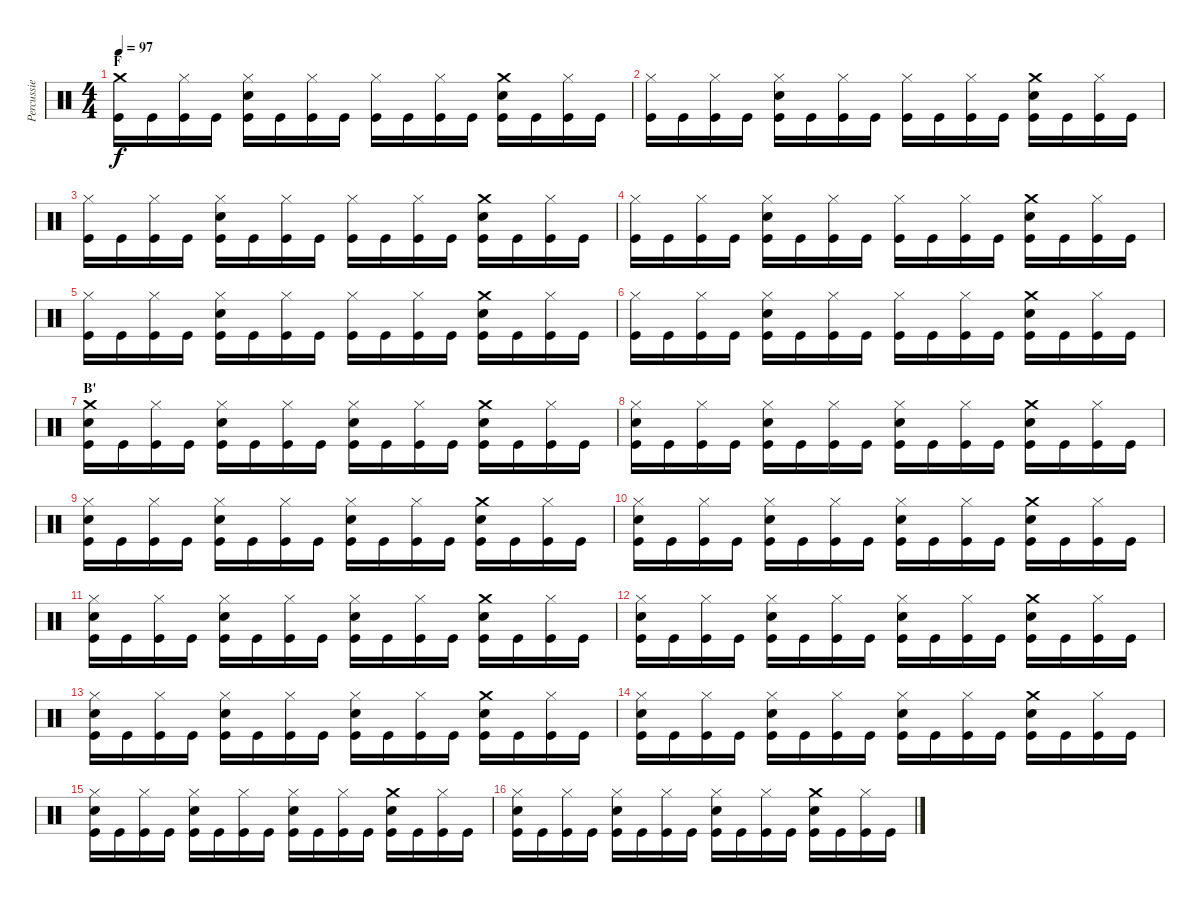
\track ("Percussie" "Percussie") {instrument percussion}
\staff {score}
\articulation defaults
\ts (4 4)
\section ("" "F")
\tempo 97
\clef neutral
\ks c
("Crash medium (hit)" "Kick (hit)").16{dy f} "Kick (hit)".16 ("Hi-Hat (closed)" "Kick (hit)").16 "Kick (hit)".16 ("Hi-Hat (closed)" "Electric Snare (hit)" "Kick (hit)").16 "Kick (hit)".16 ("Hi-Hat (closed)" "Kick (hit)").16 "Kick (hit)".16 ("Hi-Hat (closed)" "Kick (hit)").16 "Kick (hit)".16 ("Hi-Hat (closed)" "Kick (hit)").16 "Kick (hit)".16 ("Crash medium (hit)" "Electric Snare (hit)" "Kick (hit)").16 "Kick (hit)".16 ("Hi-Hat (closed)" "Kick (hit)").16 "Kick (hit)".16 |
("Hi-Hat (closed)" "Kick (hit)").16 "Kick (hit)".16 ("Hi-Hat (closed)" "Kick (hit)").16 "Kick (hit)".16 ("Hi-Hat (closed)" "Electric Snare (hit)" "Kick (hit)").16 "Kick (hit)".16 ("Hi-Hat (closed)" "Kick (hit)").16 "Kick (hit)".16 ("Hi-Hat (closed)" "Kick (hit)").16 "Kick (hit)".16 ("Hi-Hat (closed)" "Kick (hit)").16 "Kick (hit)".16 ("Crash medium (hit)" "Electric Snare (hit)" "Kick (hit)").16 "Kick (hit)".16 ("Hi-Hat (closed)" "Kick (hit)").16 "Kick (hit)".16 |
("Hi-Hat (closed)" "Kick (hit)").16 "Kick (hit)".16 ("Hi-Hat (closed)" "Kick (hit)").16 "Kick (hit)".16 ("Hi-Hat (closed)" "Electric Snare (hit)" "Kick (hit)").16 "Kick (hit)".16 ("Hi-Hat (closed)" "Kick (hit)").16 "Kick (hit)".16 ("Hi-Hat (closed)" "Kick (hit)").16 "Kick (hit)".16 ("Hi-Hat (closed)" "Kick (hit)").16 "Kick (hit)".16 ("Crash medium (hit)" "Electric Snare (hit)" "Kick (hit)").16 "Kick (hit)".16 ("Hi-Hat (closed)" "Kick (hit)").16 "Kick (hit)".16 |
("Hi-Hat (closed)" "Kick (hit)").16 "Kick (hit)".16 ("Hi-Hat (closed)" "Kick (hit)").16 "Kick (hit)".16 ("Hi-Hat (closed)" "Electric Snare (hit)" "Kick (hit)").16 "Kick (hit)".16 ("Hi-Hat (closed)" "Kick (hit)").16 "Kick (hit)".16 ("Hi-Hat (closed)" "Kick (hit)").16 "Kick (hit)".16 ("Hi-Hat (closed)" "Kick (hit)").16 "Kick (hit)".16 ("Crash medium (hit)" "Electric Snare (hit)" "Kick (hit)").16 "Kick (hit)".16 ("Hi-Hat (closed)" "Kick (hit)").16 "Kick (hit)".16 |
("Hi-Hat (closed)" "Kick (hit)").16 "Kick (hit)".16 ("Hi-Hat (closed)" "Kick (hit)").16 "Kick (hit)".16 ("Hi-Hat (closed)" "Electric Snare (hit)" "Kick (hit)").16 "Kick (hit)".16 ("Hi-Hat (closed)" "Kick (hit)").16 "Kick (hit)".16 ("Hi-Hat (closed)" "Kick (hit)").16 "Kick (hit)".16 ("Hi-Hat (closed)" "Kick (hit)").16 "Kick (hit)".16 ("Crash medium (hit)" "Electric Snare (hit)" "Kick (hit)").16 "Kick (hit)".16 ("Hi-Hat (closed)" "Kick (hit)").16 "Kick (hit)".16 |
("Hi-Hat (closed)" "Kick (hit)").16 "Kick (hit)".16 ("Hi-Hat (closed)" "Kick (hit)").16 "Kick (hit)".16 ("Hi-Hat (closed)" "Electric Snare (hit)" "Kick (hit)").16 "Kick (hit)".16 ("Hi-Hat (closed)" "Kick (hit)").16 "Kick (hit)".16 ("Hi-Hat (closed)" "Kick (hit)").16 "Kick (hit)".16 ("Hi-Hat (closed)" "Kick (hit)").16 "Kick (hit)".16 ("Crash medium (hit)" "Electric Snare (hit)" "Kick (hit)").16 "Kick (hit)".16 ("Hi-Hat (closed)" "Kick (hit)").16 "Kick (hit)".16 |
\section ("" "B'")
("Crash medium (hit)" "Electric Snare (hit)" "Kick (hit)").16 "Kick (hit)".16 ("Hi-Hat (closed)" "Kick (hit)").16 "Kick (hit)".16 ("Hi-Hat (closed)" "Electric Snare (hit)" "Kick (hit)").16 "Kick (hit)".16 ("Hi-Hat (closed)" "Kick (hit)").16 "Kick (hit)".16 ("Hi-Hat (closed)" "Electric Snare (hit)" "Kick (hit)").16 "Kick (hit)".16 ("Hi-Hat (closed)" "Kick (hit)").16 "Kick (hit)".16 ("Crash medium (hit)" "Electric Snare (hit)" "Kick (hit)").16 "Kick (hit)".16 ("Hi-Hat (closed)" "Kick (hit)").16 "Kick (hit)".16 |
("Hi-Hat (closed)" "Electric Snare (hit)" "Kick (hit)").16 "Kick (hit)".16 ("Hi-Hat (closed)" "Kick (hit)").16 "Kick (hit)".16 ("Hi-Hat (closed)" "Electric Snare (hit)" "Kick (hit)").16 "Kick (hit)".16 ("Hi-Hat (closed)" "Kick (hit)").16 "Kick (hit)".16 ("Hi-Hat (closed)" "Electric Snare (hit)" "Kick (hit)").16 "Kick (hit)".16 ("Hi-Hat (closed)" "Kick (hit)").16 "Kick (hit)".16 ("Crash medium (hit)" "Electric Snare (hit)" "Kick (hit)").16 "Kick (hit)".16 ("Hi-Hat (closed)" "Kick (hit)").16 "Kick (hit)".16 |
("Hi-Hat (closed)" "Electric Snare (hit)" "Kick (hit)").16 "Kick (hit)".16 ("Hi-Hat (closed)" "Kick (hit)").16 "Kick (hit)".16 ("Hi-Hat (closed)" "Electric Snare (hit)" "Kick (hit)").16 "Kick (hit)".16 ("Hi-Hat (closed)" "Kick (hit)").16 "Kick (hit)".16 ("Hi-Hat (closed)" "Electric Snare (hit)" "Kick (hit)").16 "Kick (hit)".16 ("Hi-Hat (closed)" "Kick (hit)").16 "Kick (hit)".16 ("Crash medium (hit)" "Electric Snare (hit)" "Kick (hit)").16 "Kick (hit)".16 ("Hi-Hat (closed)" "Kick (hit)").16 "Kick (hit)".16 |
("Hi-Hat (closed)" "Electric Snare (hit)" "Kick (hit)").16 "Kick (hit)".16 ("Hi-Hat (closed)" "Kick (hit)").16 "Kick (hit)".16 ("Hi-Hat (closed)" "Electric Snare (hit)" "Kick (hit)").16 "Kick (hit)".16 ("Hi-Hat (closed)" "Kick (hit)").16 "Kick (hit)".16 ("Hi-Hat (closed)" "Electric Snare (hit)" "Kick (hit)").16 "Kick (hit)".16 ("Hi-Hat (closed)" "Kick (hit)").16 "Kick (hit)".16 ("Crash medium (hit)" "Electric Snare (hit)" "Kick (hit)").16 "Kick (hit)".16 ("Hi-Hat (closed)" "Kick (hit)").16 "Kick (hit)".16 |
("Hi-Hat (closed)" "Electric Snare (hit)" "Kick (hit)").16 "Kick (hit)".16 ("Hi-Hat (closed)" "Kick (hit)").16 "Kick (hit)".16 ("Hi-Hat (closed)" "Electric Snare (hit)" "Kick (hit)").16 "Kick (hit)".16 ("Hi-Hat (closed)" "Kick (hit)").16 "Kick (hit)".16 ("Hi-Hat (closed)" "Electric Snare (hit)" "Kick (hit)").16 "Kick (hit)".16 ("Hi-Hat (closed)" "Kick (hit)").16 "Kick (hit)".16 ("Crash medium (hit)" "Electric Snare (hit)" "Kick (hit)").16 "Kick (hit)".16 ("Hi-Hat (closed)" "Kick (hit)").16 "Kick (hit)".16 |
("Hi-Hat (closed)" "Electric Snare (hit)" "Kick (hit)").16 "Kick (hit)".16 ("Hi-Hat (closed)" "Kick (hit)").16 "Kick (hit)".16 ("Hi-Hat (closed)" "Electric Snare (hit)" "Kick (hit)").16 "Kick (hit)".16 ("Hi-Hat (closed)" "Kick (hit)").16 "Kick (hit)".16 ("Hi-Hat (closed)" "Electric Snare (hit)" "Kick (hit)").16 "Kick (hit)".16 ("Hi-Hat (closed)" "Kick (hit)").16 "Kick (hit)".16 ("Crash medium (hit)" "Electric Snare (hit)" "Kick (hit)").16 "Kick (hit)".16 ("Hi-Hat (closed)" "Kick (hit)").16 "Kick (hit)".16 |
("Hi-Hat (closed)" "Electric Snare (hit)" "Kick (hit)").16 "Kick (hit)".16 ("Hi-Hat (closed)" "Kick (hit)").16 "Kick (hit)".16 ("Hi-Hat (closed)" "Electric Snare (hit)" "Kick (hit)").16 "Kick (hit)".16 ("Hi-Hat (closed)" "Kick (hit)").16 "Kick (hit)".16 ("Hi-Hat (closed)" "Electric Snare (hit)" "Kick (hit)").16 "Kick (hit)".16 ("Hi-Hat (closed)" "Kick (hit)").16 "Kick (hit)".16 ("Crash medium (hit)" "Electric Snare (hit)" "Kick (hit)").16 "Kick (hit)".16 ("Hi-Hat (closed)" "Kick (hit)").16 "Kick (hit)".16 |
("Hi-Hat (closed)" "Electric Snare (hit)" "Kick (hit)").16 "Kick (hit)".16 ("Hi-Hat (closed)" "Kick (hit)").16 "Kick (hit)".16 ("Hi-Hat (closed)" "Electric Snare (hit)" "Kick (hit)").16 "Kick (hit)".16 ("Hi-Hat (closed)" "Kick (hit)").16 "Kick (hit)".16 ("Hi-Hat (closed)" "Electric Snare (hit)" "Kick (hit)").16 "Kick (hit)".16 ("Hi-Hat (closed)" "Kick (hit)").16 "Kick (hit)".16 ("Crash medium (hit)" "Electric Snare (hit)" "Kick (hit)").16 "Kick (hit)".16 ("Hi-Hat (closed)" "Kick (hit)").16 "Kick (hit)".16 |
("Hi-Hat (closed)" "Electric Snare (hit)" "Kick (hit)").16 "Kick (hit)".16 ("Hi-Hat (closed)" "Kick (hit)").16 "Kick (hit)".16 ("Hi-Hat (closed)" "Electric Snare (hit)" "Kick (hit)").16 "Kick (hit)".16 ("Hi-Hat (closed)" "Kick (hit)").16 "Kick (hit)".16 ("Hi-Hat (closed)" "Electric Snare (hit)" "Kick (hit)").16 "Kick (hit)".16 ("Hi-Hat (closed)" "Kick (hit)").16 "Kick (hit)".16 ("Crash medium (hit)" "Electric Snare (hit)" "Kick (hit)").16 "Kick (hit)".16 ("Hi-Hat (closed)" "Kick (hit)").16 "Kick (hit)".16 |
("Hi-Hat (closed)" "Electric Snare (hit)" "Kick (hit)").16 "Kick (hit)".16 ("Hi-Hat (closed)" "Kick (hit)").16 "Kick (hit)".16 ("Hi-Hat (closed)" "Electric Snare (hit)" "Kick (hit)").16 "Kick (hit)".16 ("Hi-Hat (closed)" "Kick (hit)").16 "Kick (hit)".16 ("Hi-Hat (closed)" "Electric Snare (hit)" "Kick (hit)").16 "Kick (hit)".16 ("Hi-Hat (closed)" "Kick (hit)").16 "Kick (hit)".16 ("Crash medium (hit)" "Electric Snare (hit)" "Kick (hit)").16 "Kick (hit)".16 ("Hi-Hat (closed)" "Kick (hit)").16 "Kick (hit)".16
